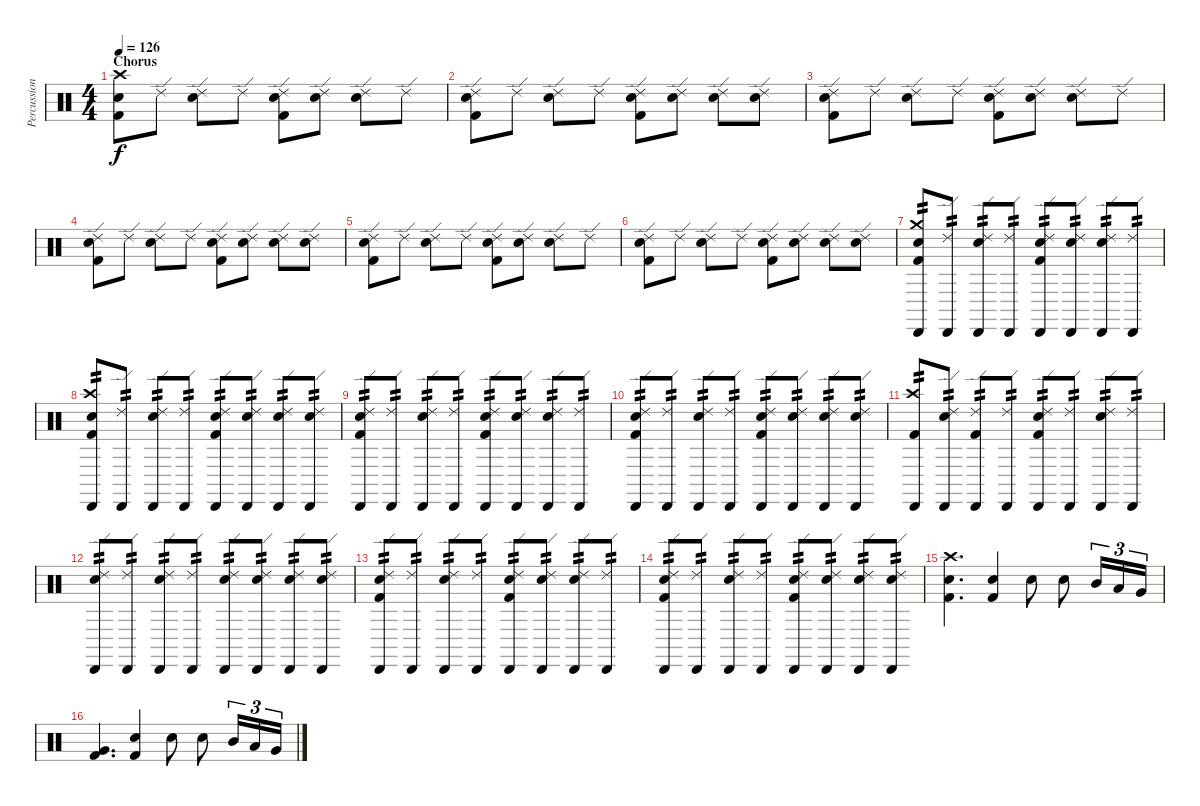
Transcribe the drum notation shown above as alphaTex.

\track ("Percussion" "Percussion") {instrument percussion}
\staff {score}
\articulation defaults
\ts (4 4)
\section ("" "Chorus")
\tempo 126
\clef neutral
\ks c
("Crash high (hit)" "Snare (hit) 2" "Kick (hit) 2").8{dy f} "Ride (edge) 2".8 ("Ride (edge) 2" "Snare (hit) 2").8 "Ride (edge) 2".8 ("Ride (edge) 2" "Snare (hit) 2" "Kick (hit) 2").8 ("Ride (edge) 2" "Snare (hit) 2").8 ("Ride (edge) 2" "Snare (hit) 2").8 "Ride (edge) 2".8 |
("Ride (edge) 2" "Snare (hit) 2" "Kick (hit) 2").8 "Ride (edge) 2".8 ("Ride (edge) 2" "Snare (hit) 2").8 "Ride (edge) 2".8 ("Ride (edge) 2" "Snare (hit) 2" "Kick (hit) 2").8 ("Ride (edge) 2" "Snare (hit) 2").8 ("Ride (edge) 2" "Snare (hit) 2").8 ("Ride (edge) 2" "Snare (hit) 2").8 |
("Ride (edge) 2" "Snare (hit) 2" "Kick (hit) 2").8 "Ride (edge) 2".8 ("Ride (edge) 2" "Snare (hit) 2").8 "Ride (edge) 2".8 ("Ride (edge) 2" "Snare (hit) 2" "Kick (hit) 2").8 ("Ride (edge) 2" "Snare (hit) 2").8 ("Ride (edge) 2" "Snare (hit) 2").8 "Ride (edge) 2".8 |
("Ride (edge) 2" "Snare (hit) 2" "Kick (hit) 2").8 "Ride (edge) 2".8 ("Ride (edge) 2" "Snare (hit) 2").8 "Ride (edge) 2".8 ("Ride (edge) 2" "Snare (hit) 2" "Kick (hit) 2").8 ("Ride (edge) 2" "Snare (hit) 2").8 ("Ride (edge) 2" "Snare (hit) 2").8 ("Ride (edge) 2" "Snare (hit) 2").8 |
("Ride (edge) 2" "Snare (hit) 2" "Kick (hit) 2").8 "Ride (edge) 2".8 ("Ride (edge) 2" "Snare (hit) 2").8 "Ride (edge) 2".8 ("Ride (edge) 2" "Snare (hit) 2" "Kick (hit) 2").8 ("Ride (edge) 2" "Snare (hit) 2").8 ("Ride (edge) 2" "Snare (hit) 2").8 "Ride (edge) 2".8 |
("Ride (edge) 2" "Snare (hit) 2" "Kick (hit) 2").8 "Ride (edge) 2".8 ("Ride (edge) 2" "Snare (hit) 2").8 "Ride (edge) 2".8 ("Ride (edge) 2" "Snare (hit) 2" "Kick (hit) 2").8 ("Ride (edge) 2" "Snare (hit) 2").8 ("Ride (edge) 2" "Snare (hit) 2").8 ("Ride (edge) 2" "Snare (hit) 2").8 |
("Cabasa (hit)" "Crash medium (hit)" "Snare (hit) 2" "Kick (hit) 2").8{tp 2} ("Cabasa (hit)" "Ride (edge) 2").8{tp 2} ("Cabasa (hit)" "Ride (edge) 2" "Snare (hit) 2").8{tp 2} ("Cabasa (hit)" "Ride (edge) 2").8{tp 2} ("Cabasa (hit)" "Ride (edge) 2" "Snare (hit) 2" "Kick (hit) 2").8{tp 2} ("Cabasa (hit)" "Ride (edge) 2" "Snare (hit) 2").8{tp 2} ("Cabasa (hit)" "Ride (edge) 2" "Snare (hit) 2").8{tp 2} ("Cabasa (hit)" "Ride (edge) 2").8{tp 2} |
("Cabasa (hit)" "Crash high (hit)" "Snare (hit) 2" "Kick (hit) 2").8{tp 2} ("Cabasa (hit)" "Ride (edge) 2").8{tp 2} ("Cabasa (hit)" "Ride (edge) 2" "Snare (hit) 2").8{tp 2} ("Cabasa (hit)" "Ride (edge) 2").8{tp 2} ("Cabasa (hit)" "Ride (edge) 2" "Snare (hit) 2" "Kick (hit) 2").8{tp 2} ("Cabasa (hit)" "Ride (edge) 2" "Snare (hit) 2").8{tp 2} ("Cabasa (hit)" "Ride (edge) 2" "Snare (hit) 2").8{tp 2} ("Cabasa (hit)" "Ride (edge) 2" "Snare (hit) 2").8{tp 2} |
("Cabasa (hit)" "Ride (edge) 2" "Snare (hit) 2" "Kick (hit) 2").8{tp 2} ("Cabasa (hit)" "Ride (edge) 2").8{tp 2} ("Cabasa (hit)" "Ride (edge) 2" "Snare (hit) 2").8{tp 2} ("Cabasa (hit)" "Ride (edge) 2").8{tp 2} ("Cabasa (hit)" "Ride (edge) 2" "Snare (hit) 2" "Kick (hit) 2").8{tp 2} ("Cabasa (hit)" "Ride (edge) 2" "Snare (hit) 2").8{tp 2} ("Cabasa (hit)" "Ride (edge) 2" "Snare (hit) 2").8{tp 2} ("Cabasa (hit)" "Ride (edge) 2").8{tp 2} |
("Cabasa (hit)" "Ride (edge) 2" "Snare (hit) 2" "Kick (hit) 2").8{tp 2} ("Cabasa (hit)" "Ride (edge) 2").8{tp 2} ("Cabasa (hit)" "Ride (edge) 2" "Snare (hit) 2").8{tp 2} ("Cabasa (hit)" "Ride (edge) 2").8{tp 2} ("Cabasa (hit)" "Ride (edge) 2" "Snare (hit) 2" "Kick (hit) 2").8{tp 2} ("Cabasa (hit)" "Ride (edge) 2" "Snare (hit) 2").8{tp 2} ("Cabasa (hit)" "Ride (edge) 2" "Snare (hit) 2").8{tp 2} ("Cabasa (hit)" "Ride (edge) 2" "Snare (hit) 2").8{tp 2} |
("Cabasa (hit)" "Crash high (hit)" "Kick (hit) 2").8{tp 2} ("Cabasa (hit)" "Ride (edge) 2" "Snare (hit) 2").8{tp 2} ("Cabasa (hit)" "Ride (edge) 2" "Kick (hit) 2").8{tp 2} ("Cabasa (hit)" "Ride (edge) 2").8{tp 2} ("Cabasa (hit)" "Ride (edge) 2" "Snare (hit) 2" "Kick (hit) 2").8{tp 2} ("Cabasa (hit)" "Ride (edge) 2").8{tp 2} ("Cabasa (hit)" "Ride (edge) 2" "Snare (hit) 2").8{tp 2} ("Cabasa (hit)" "Ride (edge) 2").8{tp 2} |
("Cabasa (hit)" "Ride (edge) 2" "Snare (hit) 2").8{tp 2} ("Cabasa (hit)" "Ride (edge) 2").8{tp 2} ("Cabasa (hit)" "Ride (edge) 2" "Snare (hit) 2").8{tp 2} ("Cabasa (hit)" "Ride (edge) 2").8{tp 2} ("Cabasa (hit)" "Ride (edge) 2" "Snare (hit) 2").8{tp 2} ("Cabasa (hit)" "Ride (edge) 2" "Snare (hit) 2").8{tp 2} ("Cabasa (hit)" "Ride (edge) 2" "Snare (hit) 2").8{tp 2} ("Cabasa (hit)" "Ride (edge) 2" "Snare (hit) 2").8{tp 2} |
("Cabasa (hit)" "Ride (edge) 2" "Snare (hit) 2" "Kick (hit) 2").8{tp 2} ("Cabasa (hit)" "Ride (edge) 2").8{tp 2} ("Cabasa (hit)" "Ride (edge) 2" "Snare (hit) 2").8{tp 2} ("Cabasa (hit)" "Ride (edge) 2").8{tp 2} ("Cabasa (hit)" "Ride (edge) 2" "Snare (hit) 2" "Kick (hit) 2").8{tp 2} ("Cabasa (hit)" "Ride (edge) 2" "Snare (hit) 2").8{tp 2} ("Cabasa (hit)" "Ride (edge) 2" "Snare (hit) 2").8{tp 2} ("Cabasa (hit)" "Ride (edge) 2").8{tp 2} |
("Cabasa (hit)" "Ride (edge) 2" "Snare (hit) 2" "Kick (hit) 2").8{tp 2} ("Cabasa (hit)" "Ride (edge) 2").8{tp 2} ("Cabasa (hit)" "Ride (edge) 2" "Snare (hit) 2").8{tp 2} ("Cabasa (hit)" "Ride (edge) 2").8{tp 2} ("Cabasa (hit)" "Ride (edge) 2" "Snare (hit) 2" "Kick (hit) 2").8{tp 2} ("Cabasa (hit)" "Ride (edge) 2" "Snare (hit) 2").8{tp 2} ("Cabasa (hit)" "Ride (edge) 2" "Snare (hit) 2").8{tp 2} ("Cabasa (hit)" "Ride (edge) 2" "Snare (hit) 2").8{tp 2} |
("Crash high (hit)" "Snare (hit) 2" "Kick (hit) 2").4{d} ("Snare (hit) 2" "Kick (hit) 2").4 "Snare (hit) 2".8 "Snare (hit) 2".8 "Mid Tom (hit)".16{tu (3 2)} "Low Tom (hit)".16{tu (3 2)} "Very Low Tom (hit)".16{tu (3 2)} |
("Very Low Tom (hit)" "Kick (hit) 2").4{d} ("Snare (hit) 2" "Kick (hit) 2").4 "Snare (hit) 2".8 "Snare (hit) 2".8 "Mid Tom (hit)".16{tu (3 2)} "Low Tom (hit)".16{tu (3 2)} "Very Low Tom (hit)".16{tu (3 2)}
